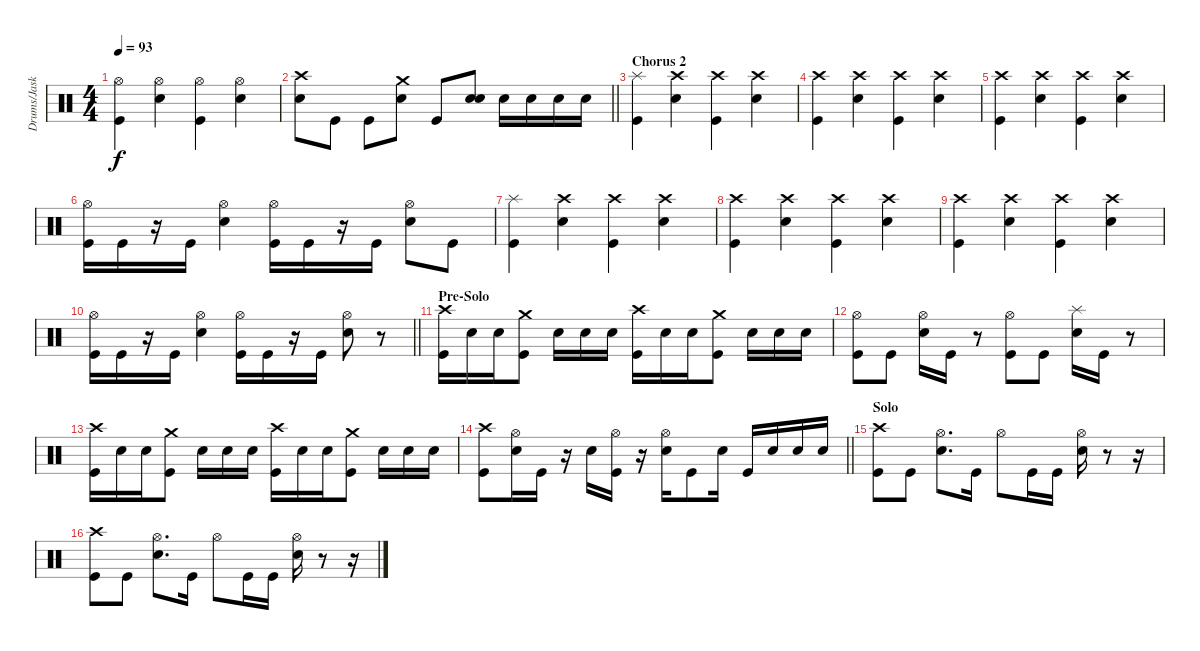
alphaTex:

\track ("Drums/Jaska" "Drums/Jask") {instrument percussion}
\staff {score}
\articulation defaults
\ts (4 4)
\tempo 93
\clef neutral
\ks c
("Hi-Hat (open)" "Kick (hit)").4{dy f} ("Hi-Hat (open)" "Electric Snare (hit)").4 ("Hi-Hat (open)" "Kick (hit)").4 ("Hi-Hat (open)" "Electric Snare (hit)").4 |
\barLineRight lightlight
("Crash high (hit)" "Electric Snare (hit)").8 "Kick (hit)".8 "Kick (hit)".8 ("Crash medium (hit)" "Electric Snare (hit)").8 "Kick (hit)".8 ("Snare (hit) 2" "Electric Snare (hit)").8 "Electric Snare (hit)".16 "Electric Snare (hit)".16 "Electric Snare (hit)".16 "Electric Snare (hit)".16 |
\section ("" "Chorus 2")
("Splash (hit)" "Kick (hit)").4 ("Crash high (hit)" "Electric Snare (hit)").4 ("Crash high (hit)" "Kick (hit)").4 ("Crash high (hit)" "Electric Snare (hit)").4 |
("Crash high (hit)" "Kick (hit)").4 ("Crash high (hit)" "Electric Snare (hit)").4 ("Crash high (hit)" "Kick (hit)").4 ("Crash high (hit)" "Electric Snare (hit)").4 |
("Crash high (hit)" "Kick (hit)").4 ("Crash high (hit)" "Electric Snare (hit)").4 ("Crash high (hit)" "Kick (hit)").4 ("Crash high (hit)" "Electric Snare (hit)").4 |
("Hi-Hat (open)" "Kick (hit)").16 "Kick (hit)".16 r.16 "Kick (hit)".16 ("Hi-Hat (open)" "Electric Snare (hit)").4 ("Hi-Hat (open)" "Kick (hit)").16 "Kick (hit)".16 r.16 "Kick (hit)".16 ("Hi-Hat (open)" "Electric Snare (hit)").8 "Kick (hit)".8 |
("Splash (hit)" "Kick (hit)").4 ("Crash high (hit)" "Electric Snare (hit)").4 ("Crash high (hit)" "Kick (hit)").4 ("Crash high (hit)" "Electric Snare (hit)").4 |
("Crash high (hit)" "Kick (hit)").4 ("Crash high (hit)" "Electric Snare (hit)").4 ("Crash high (hit)" "Kick (hit)").4 ("Crash high (hit)" "Electric Snare (hit)").4 |
("Crash high (hit)" "Kick (hit)").4 ("Crash high (hit)" "Electric Snare (hit)").4 ("Crash high (hit)" "Kick (hit)").4 ("Crash high (hit)" "Electric Snare (hit)").4 |
\barLineRight lightlight
("Hi-Hat (open)" "Kick (hit)").16 "Kick (hit)".16 r.16 "Kick (hit)".16 ("Hi-Hat (open)" "Electric Snare (hit)").4 ("Hi-Hat (open)" "Kick (hit)").16 "Kick (hit)".16 r.16 "Kick (hit)".16 ("Hi-Hat (open)" "Electric Snare (hit)").8 r.8 |
\section ("" "Pre-Solo")
("Crash high (hit)" "Kick (hit)").16 "Electric Snare (hit)".16 "Electric Snare (hit)".16 ("Crash medium (hit)" "Kick (hit)").8 "Electric Snare (hit)".16 "Electric Snare (hit)".16 "Electric Snare (hit)".16 ("Crash high (hit)" "Kick (hit)").16 "Electric Snare (hit)".16 "Electric Snare (hit)".16 ("Crash medium (hit)" "Kick (hit)").8 "Electric Snare (hit)".16 "Electric Snare (hit)".16 "Electric Snare (hit)".16 |
("Hi-Hat (open)" "Kick (hit)").8 "Kick (hit)".8 ("Hi-Hat (open)" "Electric Snare (hit)").16 "Kick (hit)".16 r.8 ("Hi-Hat (open)" "Kick (hit)").8 "Kick (hit)".8 ("Splash (hit)" "Electric Snare (hit)").16 "Kick (hit)".16 r.8 |
("Crash high (hit)" "Kick (hit)").16 "Electric Snare (hit)".16 "Electric Snare (hit)".16 ("Crash medium (hit)" "Kick (hit)").8 "Electric Snare (hit)".16 "Electric Snare (hit)".16 "Electric Snare (hit)".16 ("Crash high (hit)" "Kick (hit)").16 "Electric Snare (hit)".16 "Electric Snare (hit)".16 ("Crash medium (hit)" "Kick (hit)").8 "Electric Snare (hit)".16 "Electric Snare (hit)".16 "Electric Snare (hit)".16 |
\barLineRight lightlight
("Crash high (hit)" "Kick (hit)").8 ("Hi-Hat (open)" "Electric Snare (hit)").16 "Kick (hit)".16 r.16 "Electric Snare (hit)".16 ("Hi-Hat (open)" "Kick (hit)").16 r.16 ("Hi-Hat (open)" "Electric Snare (hit)").16 "Kick (hit)".8 "Electric Snare (hit)".16 "Kick (hit)".16 "Electric Snare (hit)".16 "Electric Snare (hit)".16 "Electric Snare (hit)".16 |
\section ("" "Solo")
("Crash high (hit)" "Kick (hit)").8 "Kick (hit)".8 ("Hi-Hat (open)" "Electric Snare (hit)").8{d} "Kick (hit)".16 "Hi-Hat (open)".8 "Kick (hit)".16 "Kick (hit)".16 ("Hi-Hat (open)" "Electric Snare (hit)").16 r.8 r.16 |
("Crash high (hit)" "Kick (hit)").8 "Kick (hit)".8 ("Hi-Hat (open)" "Electric Snare (hit)").8{d} "Kick (hit)".16 "Hi-Hat (open)".8 "Kick (hit)".16 "Kick (hit)".16 ("Hi-Hat (open)" "Electric Snare (hit)").16 r.8 r.16
